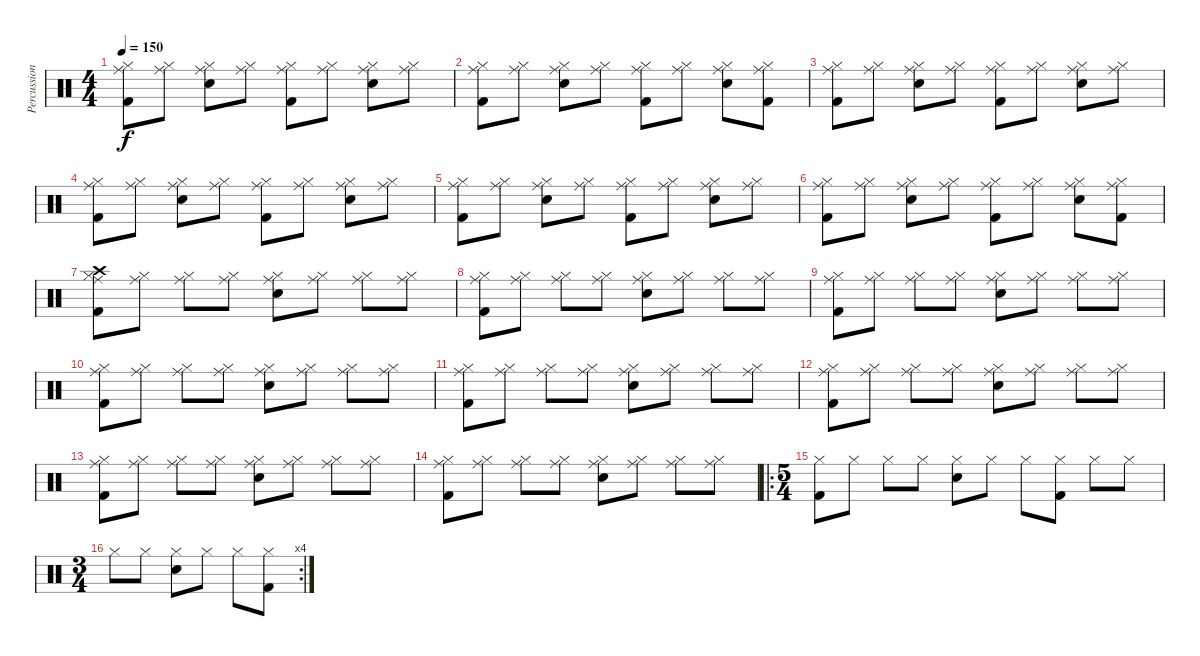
\track ("Percussion" "Percussion") {instrument percussion}
\staff {score}
\articulation defaults
\ts (4 4)
\tempo 150
\clef neutral
\ks c
("Hi-Hat (closed)" "Ride (middle)" "Kick (hit) 2").8{dy f} ("Hi-Hat (closed)" "Ride (middle)").8 ("Hi-Hat (closed)" "Ride (middle)" "Electric Snare (hit)").8 ("Hi-Hat (closed)" "Ride (middle)").8 ("Hi-Hat (closed)" "Ride (middle)" "Kick (hit) 2").8 ("Hi-Hat (closed)" "Ride (middle)").8 ("Hi-Hat (closed)" "Ride (middle)" "Electric Snare (hit)").8 ("Hi-Hat (closed)" "Ride (middle)").8 |
("Hi-Hat (closed)" "Ride (middle)" "Kick (hit) 2").8 ("Hi-Hat (closed)" "Ride (middle)").8 ("Hi-Hat (closed)" "Ride (middle)" "Electric Snare (hit)").8 ("Hi-Hat (closed)" "Ride (middle)").8 ("Hi-Hat (closed)" "Ride (middle)" "Kick (hit) 2").8 ("Hi-Hat (closed)" "Ride (middle)").8 ("Hi-Hat (closed)" "Ride (middle)" "Electric Snare (hit)").8 ("Hi-Hat (closed)" "Ride (middle)" "Kick (hit) 2").8 |
("Hi-Hat (closed)" "Ride (middle)" "Kick (hit) 2").8 ("Hi-Hat (closed)" "Ride (middle)").8 ("Hi-Hat (closed)" "Ride (middle)" "Electric Snare (hit)").8 ("Hi-Hat (closed)" "Ride (middle)").8 ("Hi-Hat (closed)" "Ride (middle)" "Kick (hit) 2").8 ("Hi-Hat (closed)" "Ride (middle)").8 ("Hi-Hat (closed)" "Ride (middle)" "Electric Snare (hit)").8 ("Hi-Hat (closed)" "Ride (middle)").8 |
("Hi-Hat (closed)" "Ride (middle)" "Kick (hit) 2").8 ("Hi-Hat (closed)" "Ride (middle)").8 ("Hi-Hat (closed)" "Ride (middle)" "Electric Snare (hit)").8 ("Hi-Hat (closed)" "Ride (middle)").8 ("Hi-Hat (closed)" "Ride (middle)" "Kick (hit) 2").8 ("Hi-Hat (closed)" "Ride (middle)").8 ("Hi-Hat (closed)" "Ride (middle)" "Electric Snare (hit)").8 ("Hi-Hat (closed)" "Ride (middle)").8 |
("Hi-Hat (closed)" "Ride (middle)" "Kick (hit) 2").8 ("Hi-Hat (closed)" "Ride (middle)").8 ("Hi-Hat (closed)" "Ride (middle)" "Electric Snare (hit)").8 ("Hi-Hat (closed)" "Ride (middle)").8 ("Hi-Hat (closed)" "Ride (middle)" "Kick (hit) 2").8 ("Hi-Hat (closed)" "Ride (middle)").8 ("Hi-Hat (closed)" "Ride (middle)" "Electric Snare (hit)").8 ("Hi-Hat (closed)" "Ride (middle)").8 |
("Hi-Hat (closed)" "Ride (middle)" "Kick (hit) 2").8 ("Hi-Hat (closed)" "Ride (middle)").8 ("Hi-Hat (closed)" "Ride (middle)" "Electric Snare (hit)").8 ("Hi-Hat (closed)" "Ride (middle)").8 ("Hi-Hat (closed)" "Ride (middle)" "Kick (hit) 2").8 ("Hi-Hat (closed)" "Ride (middle)").8 ("Hi-Hat (closed)" "Ride (middle)" "Electric Snare (hit)").8 ("Hi-Hat (closed)" "Ride (middle)" "Kick (hit) 2").8 |
("Hi-Hat (closed)" "Crash high (hit)" "Ride (middle)" "Kick (hit) 2").8 ("Hi-Hat (closed)" "Ride (middle)").8 ("Hi-Hat (closed)" "Ride (middle)").8 ("Hi-Hat (closed)" "Ride (middle)").8 ("Hi-Hat (closed)" "Ride (middle)" "Electric Snare (hit)").8 ("Hi-Hat (closed)" "Ride (middle)").8 ("Hi-Hat (closed)" "Ride (middle)").8 ("Hi-Hat (closed)" "Ride (middle)").8 |
("Hi-Hat (closed)" "Ride (middle)" "Kick (hit) 2").8 ("Hi-Hat (closed)" "Ride (middle)").8 ("Hi-Hat (closed)" "Ride (middle)").8 ("Hi-Hat (closed)" "Ride (middle)").8 ("Hi-Hat (closed)" "Ride (middle)" "Electric Snare (hit)").8 ("Hi-Hat (closed)" "Ride (middle)").8 ("Hi-Hat (closed)" "Ride (middle)").8 ("Hi-Hat (closed)" "Ride (middle)").8 |
("Hi-Hat (closed)" "Ride (middle)" "Kick (hit) 2").8 ("Hi-Hat (closed)" "Ride (middle)").8 ("Hi-Hat (closed)" "Ride (middle)").8 ("Hi-Hat (closed)" "Ride (middle)").8 ("Hi-Hat (closed)" "Ride (middle)" "Electric Snare (hit)").8 ("Hi-Hat (closed)" "Ride (middle)").8 ("Hi-Hat (closed)" "Ride (middle)").8 ("Hi-Hat (closed)" "Ride (middle)").8 |
("Hi-Hat (closed)" "Ride (middle)" "Kick (hit) 2").8 ("Hi-Hat (closed)" "Ride (middle)").8 ("Hi-Hat (closed)" "Ride (middle)").8 ("Hi-Hat (closed)" "Ride (middle)").8 ("Hi-Hat (closed)" "Ride (middle)" "Electric Snare (hit)").8 ("Hi-Hat (closed)" "Ride (middle)").8 ("Hi-Hat (closed)" "Ride (middle)").8 ("Hi-Hat (closed)" "Ride (middle)").8 |
("Hi-Hat (closed)" "Ride (middle)" "Kick (hit) 2").8 ("Hi-Hat (closed)" "Ride (middle)").8 ("Hi-Hat (closed)" "Ride (middle)").8 ("Hi-Hat (closed)" "Ride (middle)").8 ("Hi-Hat (closed)" "Ride (middle)" "Electric Snare (hit)").8 ("Hi-Hat (closed)" "Ride (middle)").8 ("Hi-Hat (closed)" "Ride (middle)").8 ("Hi-Hat (closed)" "Ride (middle)").8 |
("Hi-Hat (closed)" "Ride (middle)" "Kick (hit) 2").8 ("Hi-Hat (closed)" "Ride (middle)").8 ("Hi-Hat (closed)" "Ride (middle)").8 ("Hi-Hat (closed)" "Ride (middle)").8 ("Hi-Hat (closed)" "Ride (middle)" "Electric Snare (hit)").8 ("Hi-Hat (closed)" "Ride (middle)").8 ("Hi-Hat (closed)" "Ride (middle)").8 ("Hi-Hat (closed)" "Ride (middle)").8 |
("Hi-Hat (closed)" "Ride (middle)" "Kick (hit) 2").8 ("Hi-Hat (closed)" "Ride (middle)").8 ("Hi-Hat (closed)" "Ride (middle)").8 ("Hi-Hat (closed)" "Ride (middle)").8 ("Hi-Hat (closed)" "Ride (middle)" "Electric Snare (hit)").8 ("Hi-Hat (closed)" "Ride (middle)").8 ("Hi-Hat (closed)" "Ride (middle)").8 ("Hi-Hat (closed)" "Ride (middle)").8 |
("Hi-Hat (closed)" "Ride (middle)" "Kick (hit) 2").8 ("Hi-Hat (closed)" "Ride (middle)").8 ("Hi-Hat (closed)" "Ride (middle)").8 ("Hi-Hat (closed)" "Ride (middle)").8 ("Hi-Hat (closed)" "Ride (middle)" "Electric Snare (hit)").8 ("Hi-Hat (closed)" "Ride (middle)").8 ("Hi-Hat (closed)" "Ride (middle)").8 ("Hi-Hat (closed)" "Ride (middle)").8 |
\ro
\ts (5 4)
("Hi-Hat (closed)" "Kick (hit) 2").8 "Hi-Hat (closed)".8 "Hi-Hat (closed)".8 "Hi-Hat (closed)".8 ("Hi-Hat (closed)" "Electric Snare (hit)").8 "Hi-Hat (closed)".8 "Hi-Hat (closed)".8 ("Hi-Hat (closed)" "Kick (hit) 2").8 "Hi-Hat (closed)".8 "Hi-Hat (closed)".8 |
\rc 4
\ts (3 4)
"Hi-Hat (closed)".8 "Hi-Hat (closed)".8 ("Hi-Hat (closed)" "Electric Snare (hit)").8 "Hi-Hat (closed)".8 "Hi-Hat (closed)".8 ("Hi-Hat (closed)" "Kick (hit) 2").8
